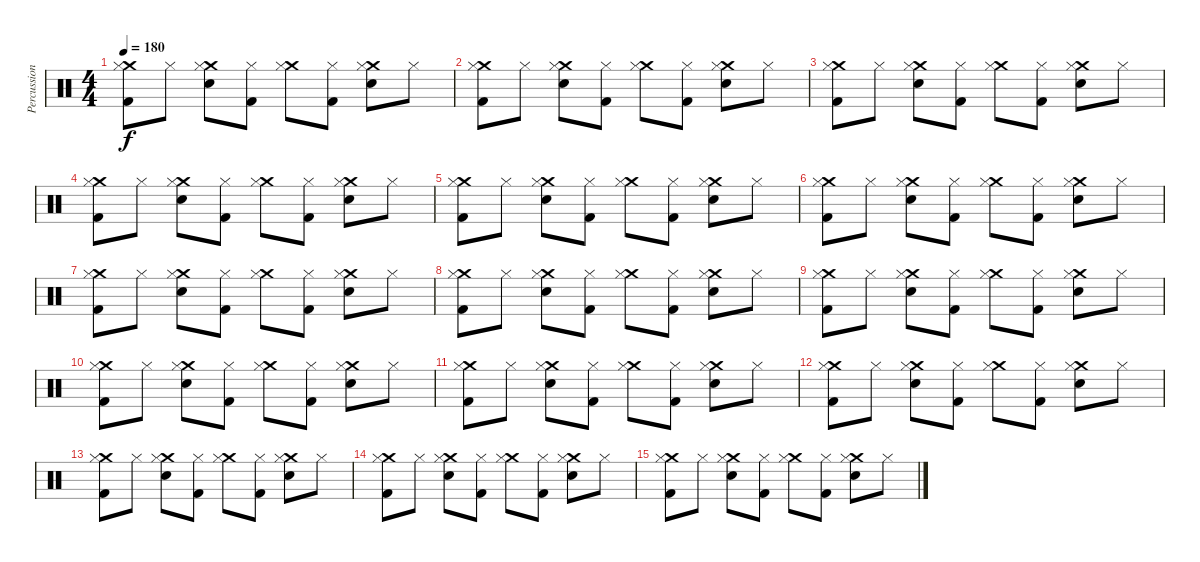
\track ("Percussion" "Percussion") {instrument percussion}
\staff {score}
\articulation defaults
\ts (4 4)
\tempo 180
\clef neutral
\ks c
("Crash medium (hit)" "Hi-Hat (closed)" "Kick (hit) 2").8{dy f} "Hi-Hat (closed)".8 ("Crash medium (hit)" "Hi-Hat (closed)" "Snare (hit) 2").8 ("Hi-Hat (closed)" "Kick (hit) 2").8 ("Crash medium (hit)" "Hi-Hat (closed)").8 ("Hi-Hat (closed)" "Kick (hit) 2").8 ("Crash medium (hit)" "Hi-Hat (closed)" "Snare (hit) 2").8 "Hi-Hat (closed)".8 |
("Crash medium (hit)" "Hi-Hat (closed)" "Kick (hit) 2").8 "Hi-Hat (closed)".8 ("Crash medium (hit)" "Hi-Hat (closed)" "Snare (hit) 2").8 ("Hi-Hat (closed)" "Kick (hit) 2").8 ("Crash medium (hit)" "Hi-Hat (closed)").8 ("Hi-Hat (closed)" "Kick (hit) 2").8 ("Crash medium (hit)" "Hi-Hat (closed)" "Snare (hit) 2").8 "Hi-Hat (closed)".8 |
("Crash medium (hit)" "Hi-Hat (closed)" "Kick (hit) 2").8 "Hi-Hat (closed)".8 ("Crash medium (hit)" "Hi-Hat (closed)" "Snare (hit) 2").8 ("Hi-Hat (closed)" "Kick (hit) 2").8 ("Crash medium (hit)" "Hi-Hat (closed)").8 ("Hi-Hat (closed)" "Kick (hit) 2").8 ("Crash medium (hit)" "Hi-Hat (closed)" "Snare (hit) 2").8 "Hi-Hat (closed)".8 |
("Crash medium (hit)" "Hi-Hat (closed)" "Kick (hit) 2").8 "Hi-Hat (closed)".8 ("Crash medium (hit)" "Hi-Hat (closed)" "Snare (hit) 2").8 ("Hi-Hat (closed)" "Kick (hit) 2").8 ("Crash medium (hit)" "Hi-Hat (closed)").8 ("Hi-Hat (closed)" "Kick (hit) 2").8 ("Crash medium (hit)" "Hi-Hat (closed)" "Snare (hit) 2").8 "Hi-Hat (closed)".8 |
("Crash medium (hit)" "Hi-Hat (closed)" "Kick (hit) 2").8 "Hi-Hat (closed)".8 ("Crash medium (hit)" "Hi-Hat (closed)" "Snare (hit) 2").8 ("Hi-Hat (closed)" "Kick (hit) 2").8 ("Crash medium (hit)" "Hi-Hat (closed)").8 ("Hi-Hat (closed)" "Kick (hit) 2").8 ("Crash medium (hit)" "Hi-Hat (closed)" "Snare (hit) 2").8 "Hi-Hat (closed)".8 |
("Crash medium (hit)" "Hi-Hat (closed)" "Kick (hit) 2").8 "Hi-Hat (closed)".8 ("Crash medium (hit)" "Hi-Hat (closed)" "Snare (hit) 2").8 ("Hi-Hat (closed)" "Kick (hit) 2").8 ("Crash medium (hit)" "Hi-Hat (closed)").8 ("Hi-Hat (closed)" "Kick (hit) 2").8 ("Crash medium (hit)" "Hi-Hat (closed)" "Snare (hit) 2").8 "Hi-Hat (closed)".8 |
("Crash medium (hit)" "Hi-Hat (closed)" "Kick (hit) 2").8 "Hi-Hat (closed)".8 ("Crash medium (hit)" "Hi-Hat (closed)" "Snare (hit) 2").8 ("Hi-Hat (closed)" "Kick (hit) 2").8 ("Crash medium (hit)" "Hi-Hat (closed)").8 ("Hi-Hat (closed)" "Kick (hit) 2").8 ("Crash medium (hit)" "Hi-Hat (closed)" "Snare (hit) 2").8 "Hi-Hat (closed)".8 |
("Crash medium (hit)" "Hi-Hat (closed)" "Kick (hit) 2").8 "Hi-Hat (closed)".8 ("Crash medium (hit)" "Hi-Hat (closed)" "Snare (hit) 2").8 ("Hi-Hat (closed)" "Kick (hit) 2").8 ("Crash medium (hit)" "Hi-Hat (closed)").8 ("Hi-Hat (closed)" "Kick (hit) 2").8 ("Crash medium (hit)" "Hi-Hat (closed)" "Snare (hit) 2").8 "Hi-Hat (closed)".8 |
("Crash medium (hit)" "Hi-Hat (closed)" "Kick (hit) 2").8 "Hi-Hat (closed)".8 ("Crash medium (hit)" "Hi-Hat (closed)" "Snare (hit) 2").8 ("Hi-Hat (closed)" "Kick (hit) 2").8 ("Crash medium (hit)" "Hi-Hat (closed)").8 ("Hi-Hat (closed)" "Kick (hit) 2").8 ("Crash medium (hit)" "Hi-Hat (closed)" "Snare (hit) 2").8 "Hi-Hat (closed)".8 |
("Crash medium (hit)" "Hi-Hat (closed)" "Kick (hit) 2").8 "Hi-Hat (closed)".8 ("Crash medium (hit)" "Hi-Hat (closed)" "Snare (hit) 2").8 ("Hi-Hat (closed)" "Kick (hit) 2").8 ("Crash medium (hit)" "Hi-Hat (closed)").8 ("Hi-Hat (closed)" "Kick (hit) 2").8 ("Crash medium (hit)" "Hi-Hat (closed)" "Snare (hit) 2").8 "Hi-Hat (closed)".8 |
("Crash medium (hit)" "Hi-Hat (closed)" "Kick (hit) 2").8 "Hi-Hat (closed)".8 ("Crash medium (hit)" "Hi-Hat (closed)" "Snare (hit) 2").8 ("Hi-Hat (closed)" "Kick (hit) 2").8 ("Crash medium (hit)" "Hi-Hat (closed)").8 ("Hi-Hat (closed)" "Kick (hit) 2").8 ("Crash medium (hit)" "Hi-Hat (closed)" "Snare (hit) 2").8 "Hi-Hat (closed)".8 |
("Crash medium (hit)" "Hi-Hat (closed)" "Kick (hit) 2").8 "Hi-Hat (closed)".8 ("Crash medium (hit)" "Hi-Hat (closed)" "Snare (hit) 2").8 ("Hi-Hat (closed)" "Kick (hit) 2").8 ("Crash medium (hit)" "Hi-Hat (closed)").8 ("Hi-Hat (closed)" "Kick (hit) 2").8 ("Crash medium (hit)" "Hi-Hat (closed)" "Snare (hit) 2").8 "Hi-Hat (closed)".8 |
("Crash medium (hit)" "Hi-Hat (closed)" "Kick (hit) 2").8 "Hi-Hat (closed)".8 ("Crash medium (hit)" "Hi-Hat (closed)" "Snare (hit) 2").8 ("Hi-Hat (closed)" "Kick (hit) 2").8 ("Crash medium (hit)" "Hi-Hat (closed)").8 ("Hi-Hat (closed)" "Kick (hit) 2").8 ("Crash medium (hit)" "Hi-Hat (closed)" "Snare (hit) 2").8 "Hi-Hat (closed)".8 |
("Crash medium (hit)" "Hi-Hat (closed)" "Kick (hit) 2").8 "Hi-Hat (closed)".8 ("Crash medium (hit)" "Hi-Hat (closed)" "Snare (hit) 2").8 ("Hi-Hat (closed)" "Kick (hit) 2").8 ("Crash medium (hit)" "Hi-Hat (closed)").8 ("Hi-Hat (closed)" "Kick (hit) 2").8 ("Crash medium (hit)" "Hi-Hat (closed)" "Snare (hit) 2").8 "Hi-Hat (closed)".8 |
("Crash medium (hit)" "Hi-Hat (closed)" "Kick (hit) 2").8 "Hi-Hat (closed)".8 ("Crash medium (hit)" "Hi-Hat (closed)" "Snare (hit) 2").8 ("Hi-Hat (closed)" "Kick (hit) 2").8 ("Crash medium (hit)" "Hi-Hat (closed)").8 ("Hi-Hat (closed)" "Kick (hit) 2").8 ("Crash medium (hit)" "Hi-Hat (closed)" "Snare (hit) 2").8 "Hi-Hat (closed)".8
